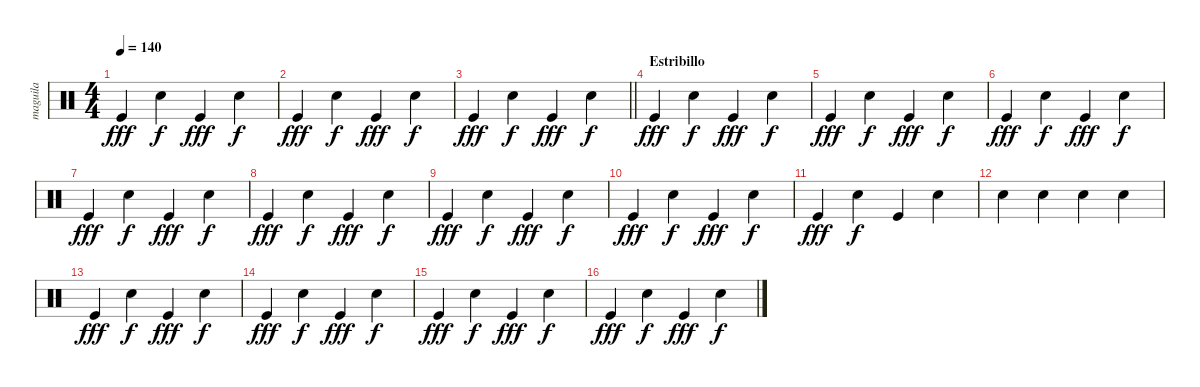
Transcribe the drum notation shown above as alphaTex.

\track ("maguila" "maguila") {instrument percussion}
\staff {score}
\articulation defaults
\ts (4 4)
\tempo 140
\clef neutral
\ks c "Kick (hit)".4{dy fff} "Snare (hit) 2".4{dy f} "Kick (hit)".4{dy fff} "Snare (hit) 2".4{dy f}
|
"Kick (hit)".4{dy fff} "Snare (hit) 2".4{dy f} "Kick (hit)".4{dy fff} "Snare (hit) 2".4{dy f} |
\barLineRight lightlight "Kick (hit)".4{dy fff} "Snare (hit) 2".4{dy f} "Kick (hit)".4{dy fff} "Snare (hit) 2".4{dy f}
|
\section ("" "Estribillo")
"Kick (hit)".4{dy fff} "Snare (hit) 2".4{dy f} "Kick (hit)".4{dy fff} "Snare (hit) 2".4{dy f} |
"Kick (hit)".4{dy fff} "Snare (hit) 2".4{dy f} "Kick (hit)".4{dy fff} "Snare (hit) 2".4{dy f} |
"Kick (hit)".4{dy fff} "Snare (hit) 2".4{dy f} "Kick (hit)".4{dy fff} "Snare (hit) 2".4{dy f} |
"Kick (hit)".4{dy fff} "Snare (hit) 2".4{dy f} "Kick (hit)".4{dy fff} "Snare (hit) 2".4{dy f} |
"Kick (hit)".4{dy fff} "Snare (hit) 2".4{dy f} "Kick (hit)".4{dy fff} "Snare (hit) 2".4{dy f} |
"Kick (hit)".4{dy fff} "Snare (hit) 2".4{dy f} "Kick (hit)".4{dy fff} "Snare (hit) 2".4{dy f} |
"Kick (hit)".4{dy fff} "Snare (hit) 2".4{dy f} "Kick (hit)".4{dy fff} "Snare (hit) 2".4{dy f} |
"Kick (hit)".4{dy fff} "Snare (hit) 2".4{dy f} "Kick (hit)".4 "Snare (hit) 2".4 |
"Snare (hit) 2".4 "Snare (hit) 2".4 "Snare (hit) 2".4 "Snare (hit) 2".4 |
"Kick (hit)".4{dy fff} "Snare (hit) 2".4{dy f} "Kick (hit)".4{dy fff} "Snare (hit) 2".4{dy f} |
"Kick (hit)".4{dy fff} "Snare (hit) 2".4{dy f} "Kick (hit)".4{dy fff} "Snare (hit) 2".4{dy f} |
"Kick (hit)".4{dy fff} "Snare (hit) 2".4{dy f} "Kick (hit)".4{dy fff} "Snare (hit) 2".4{dy f} |
"Kick (hit)".4{dy fff} "Snare (hit) 2".4{dy f} "Kick (hit)".4{dy fff} "Snare (hit) 2".4{dy f}
